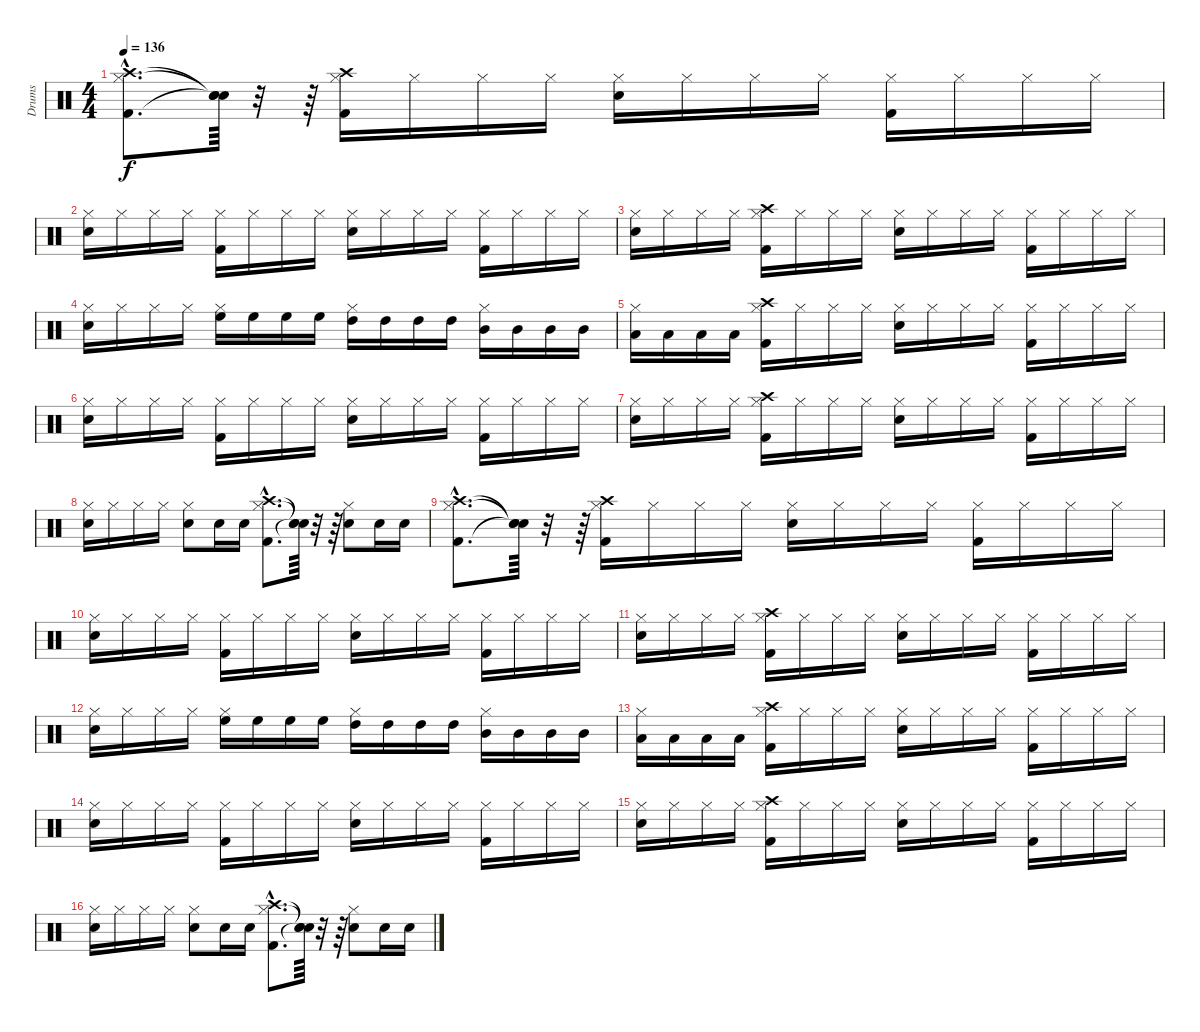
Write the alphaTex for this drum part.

\track ("Drums" "Drums") {instrument percussion}
\staff {score}
\articulation defaults
\ts (4 4)
\tempo 136
\clef neutral
\ks c
("Kick (hit) 2"{hac} "Hi-Hat (closed)"{hac} "Crash high (hit)"{hac}).8{d dy f} ("Snare (hit)"{t} "Snare (hit)"{t} "Snare (hit)"{t}).64 r.32 r.64 ("Kick (hit) 2" "Hi-Hat (closed)" "Crash high (hit)").16 "Hi-Hat (closed)".16 "Hi-Hat (closed)".16 "Hi-Hat (closed)".16 ("Snare (hit) 2" "Hi-Hat (closed)").16 "Hi-Hat (closed)".16 "Hi-Hat (closed)".16 "Hi-Hat (closed)".16 ("Kick (hit) 2" "Hi-Hat (closed)").16 "Hi-Hat (closed)".16 "Hi-Hat (closed)".16 "Hi-Hat (closed)".16 |
("Snare (hit) 2" "Hi-Hat (closed)").16 "Hi-Hat (closed)".16 "Hi-Hat (closed)".16 "Hi-Hat (closed)".16 ("Kick (hit) 2" "Hi-Hat (closed)").16 "Hi-Hat (closed)".16 "Hi-Hat (closed)".16 "Hi-Hat (closed)".16 ("Snare (hit) 2" "Hi-Hat (closed)").16 "Hi-Hat (closed)".16 "Hi-Hat (closed)".16 "Hi-Hat (closed)".16 ("Kick (hit) 2" "Hi-Hat (closed)").16 "Hi-Hat (closed)".16 "Hi-Hat (closed)".16 "Hi-Hat (closed)".16 |
("Snare (hit) 2" "Hi-Hat (closed)").16 "Hi-Hat (closed)".16 "Hi-Hat (closed)".16 "Hi-Hat (closed)".16 ("Kick (hit) 2" "Hi-Hat (closed)" "Crash high (hit)").16 "Hi-Hat (closed)".16 "Hi-Hat (closed)".16 "Hi-Hat (closed)".16 ("Snare (hit) 2" "Hi-Hat (closed)").16 "Hi-Hat (closed)".16 "Hi-Hat (closed)".16 "Hi-Hat (closed)".16 ("Kick (hit) 2" "Hi-Hat (closed)").16 "Hi-Hat (closed)".16 "Hi-Hat (closed)".16 "Hi-Hat (closed)".16 |
("Snare (hit) 2" "Hi-Hat (closed)").16 "Hi-Hat (closed)".16 "Hi-Hat (closed)".16 "Hi-Hat (closed)".16 ("Hi-Hat (closed)" "High Floor Tom (hit)").16 "High Floor Tom (hit)".16 "High Floor Tom (hit)".16 "High Floor Tom (hit)".16 ("Hi-Hat (closed)" "High Tom (hit)").16 "High Tom (hit)".16 "High Tom (hit)".16 "High Tom (hit)".16 ("Hi-Hat (closed)" "Mid Tom (hit)").16 "Mid Tom (hit)".16 "Mid Tom (hit)".16 "Mid Tom (hit)".16 |
("Hi-Hat (closed)" "Low Tom (hit)").16 "Low Tom (hit)".16 "Low Tom (hit)".16 "Low Tom (hit)".16 ("Kick (hit) 2" "Hi-Hat (closed)" "Crash high (hit)").16 "Hi-Hat (closed)".16 "Hi-Hat (closed)".16 "Hi-Hat (closed)".16 ("Snare (hit) 2" "Hi-Hat (closed)").16 "Hi-Hat (closed)".16 "Hi-Hat (closed)".16 "Hi-Hat (closed)".16 ("Kick (hit) 2" "Hi-Hat (closed)").16 "Hi-Hat (closed)".16 "Hi-Hat (closed)".16 "Hi-Hat (closed)".16 |
("Snare (hit) 2" "Hi-Hat (closed)").16 "Hi-Hat (closed)".16 "Hi-Hat (closed)".16 "Hi-Hat (closed)".16 ("Kick (hit) 2" "Hi-Hat (closed)").16 "Hi-Hat (closed)".16 "Hi-Hat (closed)".16 "Hi-Hat (closed)".16 ("Snare (hit) 2" "Hi-Hat (closed)").16 "Hi-Hat (closed)".16 "Hi-Hat (closed)".16 "Hi-Hat (closed)".16 ("Kick (hit) 2" "Hi-Hat (closed)").16 "Hi-Hat (closed)".16 "Hi-Hat (closed)".16 "Hi-Hat (closed)".16 |
("Snare (hit) 2" "Hi-Hat (closed)").16 "Hi-Hat (closed)".16 "Hi-Hat (closed)".16 "Hi-Hat (closed)".16 ("Kick (hit) 2" "Hi-Hat (closed)" "Crash high (hit)").16 "Hi-Hat (closed)".16 "Hi-Hat (closed)".16 "Hi-Hat (closed)".16 ("Snare (hit) 2" "Hi-Hat (closed)").16 "Hi-Hat (closed)".16 "Hi-Hat (closed)".16 "Hi-Hat (closed)".16 ("Kick (hit) 2" "Hi-Hat (closed)").16 "Hi-Hat (closed)".16 "Hi-Hat (closed)".16 "Hi-Hat (closed)".16 |
("Snare (hit) 2" "Hi-Hat (closed)").16 "Hi-Hat (closed)".16 "Hi-Hat (closed)".16 "Hi-Hat (closed)".16 ("Snare (hit) 2" "Hi-Hat (closed)").8 "Snare (hit) 2".16 "Snare (hit) 2".16 ("Kick (hit) 2"{hac} "Hi-Hat (closed)"{hac} "Crash high (hit)"{hac}).8{d} ("Snare (hit)"{t} "Snare (hit)"{t} "Snare (hit)"{t}).64 r.32 r.64 ("Snare (hit) 2" "Hi-Hat (closed)").8 "Snare (hit) 2".16 "Snare (hit) 2".16 |
("Kick (hit) 2"{hac} "Hi-Hat (closed)"{hac} "Crash high (hit)"{hac}).8{d} ("Snare (hit)"{t} "Snare (hit)"{t} "Snare (hit)"{t}).64 r.32 r.64 ("Kick (hit) 2" "Hi-Hat (closed)" "Crash high (hit)").16 "Hi-Hat (closed)".16 "Hi-Hat (closed)".16 "Hi-Hat (closed)".16 ("Snare (hit) 2" "Hi-Hat (closed)").16 "Hi-Hat (closed)".16 "Hi-Hat (closed)".16 "Hi-Hat (closed)".16 ("Kick (hit) 2" "Hi-Hat (closed)").16 "Hi-Hat (closed)".16 "Hi-Hat (closed)".16 "Hi-Hat (closed)".16 |
("Snare (hit) 2" "Hi-Hat (closed)").16 "Hi-Hat (closed)".16 "Hi-Hat (closed)".16 "Hi-Hat (closed)".16 ("Kick (hit) 2" "Hi-Hat (closed)").16 "Hi-Hat (closed)".16 "Hi-Hat (closed)".16 "Hi-Hat (closed)".16 ("Snare (hit) 2" "Hi-Hat (closed)").16 "Hi-Hat (closed)".16 "Hi-Hat (closed)".16 "Hi-Hat (closed)".16 ("Kick (hit) 2" "Hi-Hat (closed)").16 "Hi-Hat (closed)".16 "Hi-Hat (closed)".16 "Hi-Hat (closed)".16 |
("Snare (hit) 2" "Hi-Hat (closed)").16 "Hi-Hat (closed)".16 "Hi-Hat (closed)".16 "Hi-Hat (closed)".16 ("Kick (hit) 2" "Hi-Hat (closed)" "Crash high (hit)").16 "Hi-Hat (closed)".16 "Hi-Hat (closed)".16 "Hi-Hat (closed)".16 ("Snare (hit) 2" "Hi-Hat (closed)").16 "Hi-Hat (closed)".16 "Hi-Hat (closed)".16 "Hi-Hat (closed)".16 ("Kick (hit) 2" "Hi-Hat (closed)").16 "Hi-Hat (closed)".16 "Hi-Hat (closed)".16 "Hi-Hat (closed)".16 |
("Snare (hit) 2" "Hi-Hat (closed)").16 "Hi-Hat (closed)".16 "Hi-Hat (closed)".16 "Hi-Hat (closed)".16 ("Hi-Hat (closed)" "High Floor Tom (hit)").16 "High Floor Tom (hit)".16 "High Floor Tom (hit)".16 "High Floor Tom (hit)".16 ("Hi-Hat (closed)" "High Tom (hit)").16 "High Tom (hit)".16 "High Tom (hit)".16 "High Tom (hit)".16 ("Hi-Hat (closed)" "Mid Tom (hit)").16 "Mid Tom (hit)".16 "Mid Tom (hit)".16 "Mid Tom (hit)".16 |
("Hi-Hat (closed)" "Low Tom (hit)").16 "Low Tom (hit)".16 "Low Tom (hit)".16 "Low Tom (hit)".16 ("Kick (hit) 2" "Hi-Hat (closed)" "Crash high (hit)").16 "Hi-Hat (closed)".16 "Hi-Hat (closed)".16 "Hi-Hat (closed)".16 ("Snare (hit) 2" "Hi-Hat (closed)").16 "Hi-Hat (closed)".16 "Hi-Hat (closed)".16 "Hi-Hat (closed)".16 ("Kick (hit) 2" "Hi-Hat (closed)").16 "Hi-Hat (closed)".16 "Hi-Hat (closed)".16 "Hi-Hat (closed)".16 |
("Snare (hit) 2" "Hi-Hat (closed)").16 "Hi-Hat (closed)".16 "Hi-Hat (closed)".16 "Hi-Hat (closed)".16 ("Kick (hit) 2" "Hi-Hat (closed)").16 "Hi-Hat (closed)".16 "Hi-Hat (closed)".16 "Hi-Hat (closed)".16 ("Snare (hit) 2" "Hi-Hat (closed)").16 "Hi-Hat (closed)".16 "Hi-Hat (closed)".16 "Hi-Hat (closed)".16 ("Kick (hit) 2" "Hi-Hat (closed)").16 "Hi-Hat (closed)".16 "Hi-Hat (closed)".16 "Hi-Hat (closed)".16 |
("Snare (hit) 2" "Hi-Hat (closed)").16 "Hi-Hat (closed)".16 "Hi-Hat (closed)".16 "Hi-Hat (closed)".16 ("Kick (hit) 2" "Hi-Hat (closed)" "Crash high (hit)").16 "Hi-Hat (closed)".16 "Hi-Hat (closed)".16 "Hi-Hat (closed)".16 ("Snare (hit) 2" "Hi-Hat (closed)").16 "Hi-Hat (closed)".16 "Hi-Hat (closed)".16 "Hi-Hat (closed)".16 ("Kick (hit) 2" "Hi-Hat (closed)").16 "Hi-Hat (closed)".16 "Hi-Hat (closed)".16 "Hi-Hat (closed)".16 |
("Snare (hit) 2" "Hi-Hat (closed)").16 "Hi-Hat (closed)".16 "Hi-Hat (closed)".16 "Hi-Hat (closed)".16 ("Snare (hit) 2" "Hi-Hat (closed)").8 "Snare (hit) 2".16 "Snare (hit) 2".16 ("Kick (hit) 2"{hac} "Hi-Hat (closed)"{hac} "Crash high (hit)"{hac}).8{d} ("Snare (hit)"{t} "Snare (hit)"{t} "Snare (hit)"{t}).64 r.32 r.64 ("Snare (hit) 2" "Hi-Hat (closed)").8 "Snare (hit) 2".16 "Snare (hit) 2".16
